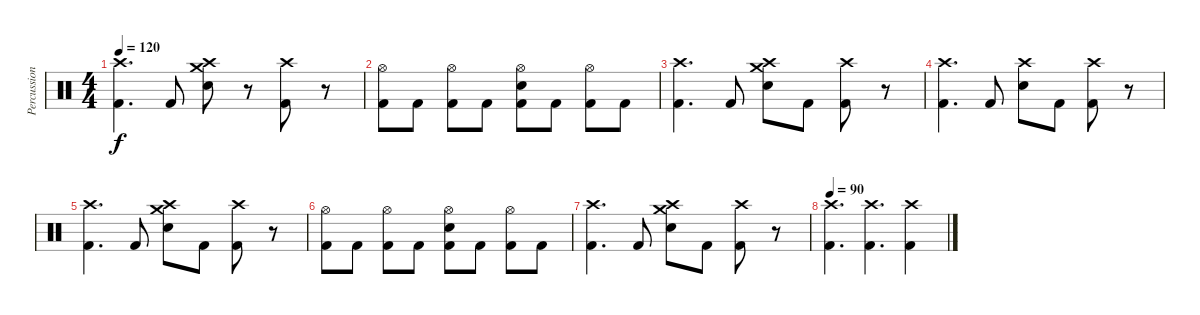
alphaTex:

\track ("Percussion" "Percussion") {instrument percussion}
\staff {score}
\articulation defaults
\ts (4 4)
\tempo 120
\clef neutral
\ks c
("Kick (hit) 2" "Crash high (hit)").4{d dy f} "Kick (hit) 2".8 ("Electric Snare (hit)" "Crash medium (hit)" "Crash high (hit)").8 r.8 ("Kick (hit) 2" "Crash high (hit)").8 r.8 |
("Kick (hit) 2" "Hi-Hat (open)").8 "Kick (hit) 2".8 ("Kick (hit) 2" "Hi-Hat (open)").8 "Kick (hit) 2".8 ("Kick (hit) 2" "Electric Snare (hit)" "Hi-Hat (open)").8 "Kick (hit) 2".8 ("Kick (hit) 2" "Hi-Hat (open)").8 "Kick (hit) 2".8 |
("Kick (hit) 2" "Crash high (hit)").4{d} "Kick (hit) 2".8 ("Electric Snare (hit)" "Crash medium (hit)" "Crash high (hit)").8 "Kick (hit) 2".8 ("Kick (hit) 2" "Crash high (hit)").8 r.8 |
("Kick (hit) 2" "Crash high (hit)").4{d} "Kick (hit) 2".8 ("Electric Snare (hit)" "Crash high (hit)").8 "Kick (hit) 2".8 ("Kick (hit) 2" "Crash high (hit)").8 r.8 |
("Kick (hit) 2" "Crash high (hit)").4{d} "Kick (hit) 2".8 ("Electric Snare (hit)" "Crash medium (hit)" "Crash high (hit)").8 "Kick (hit) 2".8 ("Kick (hit) 2" "Crash high (hit)").8 r.8 |
("Kick (hit) 2" "Hi-Hat (open)").8 "Kick (hit) 2".8 ("Kick (hit) 2" "Hi-Hat (open)").8 "Kick (hit) 2".8 ("Kick (hit) 2" "Electric Snare (hit)" "Hi-Hat (open)").8 "Kick (hit) 2".8 ("Kick (hit) 2" "Hi-Hat (open)").8 "Kick (hit) 2".8 |
("Kick (hit) 2" "Crash high (hit)").4{d} "Kick (hit) 2".8 ("Electric Snare (hit)" "Crash medium (hit)" "Crash high (hit)").8 "Kick (hit) 2".8 ("Kick (hit) 2" "Crash high (hit)").8 r.8 |
\tempo 90
("Kick (hit) 2" "Crash high (hit)").4{d} ("Kick (hit) 2" "Crash high (hit)").4{d} ("Kick (hit) 2" "Crash high (hit)").4
